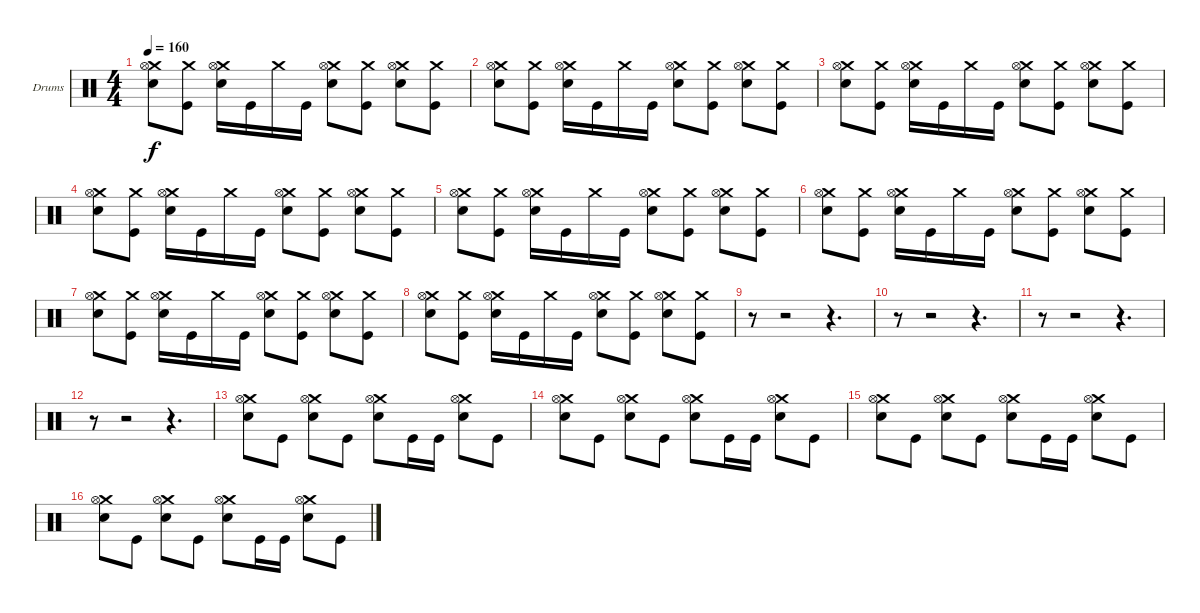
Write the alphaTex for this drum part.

\bracketExtendMode groupsimilarinstruments
\firstSystemTrackNameOrientation horizontal
\otherSystemsTrackNameOrientation horizontal
\track ("Lars Ulrich (Drum)" "Drums") {instrument percussion}
\staff {score}
\articulation defaults
\ts (4 4)
\tempo 160
\clef neutral
\ks c
("Crash medium (hit)" "Hi-Hat (open)" "Snare (hit) 2").8{dy f} ("Crash medium (hit)" "Kick (hit)").8 ("Crash medium (hit)" "Hi-Hat (open)" "Snare (hit) 2").16 "Kick (hit)".16 "Crash medium (hit)".16 "Kick (hit)".16 ("Crash medium (hit)" "Hi-Hat (open)" "Snare (hit) 2").8 ("Crash medium (hit)" "Kick (hit)").8 ("Crash medium (hit)" "Hi-Hat (open)" "Snare (hit) 2").8 ("Crash medium (hit)" "Kick (hit)").8 |
("Crash medium (hit)" "Hi-Hat (open)" "Snare (hit) 2").8 ("Crash medium (hit)" "Kick (hit)").8 ("Crash medium (hit)" "Hi-Hat (open)" "Snare (hit) 2").16 "Kick (hit)".16 "Crash medium (hit)".16 "Kick (hit)".16 ("Crash medium (hit)" "Hi-Hat (open)" "Snare (hit) 2").8 ("Crash medium (hit)" "Kick (hit)").8 ("Crash medium (hit)" "Hi-Hat (open)" "Snare (hit) 2").8 ("Crash medium (hit)" "Kick (hit)").8 |
("Crash medium (hit)" "Hi-Hat (open)" "Snare (hit) 2").8 ("Crash medium (hit)" "Kick (hit)").8 ("Crash medium (hit)" "Hi-Hat (open)" "Snare (hit) 2").16 "Kick (hit)".16 "Crash medium (hit)".16 "Kick (hit)".16 ("Crash medium (hit)" "Hi-Hat (open)" "Snare (hit) 2").8 ("Crash medium (hit)" "Kick (hit)").8 ("Crash medium (hit)" "Hi-Hat (open)" "Snare (hit) 2").8 ("Crash medium (hit)" "Kick (hit)").8 |
("Crash medium (hit)" "Hi-Hat (open)" "Snare (hit) 2").8 ("Crash medium (hit)" "Kick (hit)").8 ("Crash medium (hit)" "Hi-Hat (open)" "Snare (hit) 2").16 "Kick (hit)".16 "Crash medium (hit)".16 "Kick (hit)".16 ("Crash medium (hit)" "Hi-Hat (open)" "Snare (hit) 2").8 ("Crash medium (hit)" "Kick (hit)").8 ("Crash medium (hit)" "Hi-Hat (open)" "Snare (hit) 2").8 ("Crash medium (hit)" "Kick (hit)").8 |
("Crash medium (hit)" "Hi-Hat (open)" "Snare (hit) 2").8 ("Crash medium (hit)" "Kick (hit)").8 ("Crash medium (hit)" "Hi-Hat (open)" "Snare (hit) 2").16 "Kick (hit)".16 "Crash medium (hit)".16 "Kick (hit)".16 ("Crash medium (hit)" "Hi-Hat (open)" "Snare (hit) 2").8 ("Crash medium (hit)" "Kick (hit)").8 ("Crash medium (hit)" "Hi-Hat (open)" "Snare (hit) 2").8 ("Crash medium (hit)" "Kick (hit)").8 |
("Crash medium (hit)" "Hi-Hat (open)" "Snare (hit) 2").8 ("Crash medium (hit)" "Kick (hit)").8 ("Crash medium (hit)" "Hi-Hat (open)" "Snare (hit) 2").16 "Kick (hit)".16 "Crash medium (hit)".16 "Kick (hit)".16 ("Crash medium (hit)" "Hi-Hat (open)" "Snare (hit) 2").8 ("Crash medium (hit)" "Kick (hit)").8 ("Crash medium (hit)" "Hi-Hat (open)" "Snare (hit) 2").8 ("Crash medium (hit)" "Kick (hit)").8 |
("Crash medium (hit)" "Hi-Hat (open)" "Snare (hit) 2").8 ("Crash medium (hit)" "Kick (hit)").8 ("Crash medium (hit)" "Hi-Hat (open)" "Snare (hit) 2").16 "Kick (hit)".16 "Crash medium (hit)".16 "Kick (hit)".16 ("Crash medium (hit)" "Hi-Hat (open)" "Snare (hit) 2").8 ("Crash medium (hit)" "Kick (hit)").8 ("Crash medium (hit)" "Hi-Hat (open)" "Snare (hit) 2").8 ("Crash medium (hit)" "Kick (hit)").8 |
("Crash medium (hit)" "Hi-Hat (open)" "Snare (hit) 2").8 ("Crash medium (hit)" "Kick (hit)").8 ("Crash medium (hit)" "Hi-Hat (open)" "Snare (hit) 2").16 "Kick (hit)".16 "Crash medium (hit)".16 "Kick (hit)".16 ("Crash medium (hit)" "Hi-Hat (open)" "Snare (hit) 2").8 ("Crash medium (hit)" "Kick (hit)").8 ("Crash medium (hit)" "Hi-Hat (open)" "Snare (hit) 2").8 ("Crash medium (hit)" "Kick (hit)").8 |
r.8 r.2 r.4{d} |
r.8 r.2 r.4{d} |
r.8 r.2 r.4{d} |
r.8 r.2 r.4{d} |
("Crash medium (hit)" "Hi-Hat (open)" "Snare (hit) 2").8 "Kick (hit)".8 ("Crash medium (hit)" "Hi-Hat (open)" "Snare (hit) 2").8 "Kick (hit)".8 ("Crash medium (hit)" "Hi-Hat (open)" "Snare (hit) 2").8 "Kick (hit)".16 "Kick (hit)".16 ("Crash medium (hit)" "Hi-Hat (open)" "Snare (hit) 2").8 "Kick (hit)".8 |
("Crash medium (hit)" "Hi-Hat (open)" "Snare (hit) 2").8 "Kick (hit)".8 ("Crash medium (hit)" "Hi-Hat (open)" "Snare (hit) 2").8 "Kick (hit)".8 ("Crash medium (hit)" "Hi-Hat (open)" "Snare (hit) 2").8 "Kick (hit)".16 "Kick (hit)".16 ("Crash medium (hit)" "Hi-Hat (open)" "Snare (hit) 2").8 "Kick (hit)".8 |
("Crash medium (hit)" "Hi-Hat (open)" "Snare (hit) 2").8 "Kick (hit)".8 ("Crash medium (hit)" "Hi-Hat (open)" "Snare (hit) 2").8 "Kick (hit)".8 ("Crash medium (hit)" "Hi-Hat (open)" "Snare (hit) 2").8 "Kick (hit)".16 "Kick (hit)".16 ("Crash medium (hit)" "Hi-Hat (open)" "Snare (hit) 2").8 "Kick (hit)".8 |
("Crash medium (hit)" "Hi-Hat (open)" "Snare (hit) 2").8 "Kick (hit)".8 ("Crash medium (hit)" "Hi-Hat (open)" "Snare (hit) 2").8 "Kick (hit)".8 ("Crash medium (hit)" "Hi-Hat (open)" "Snare (hit) 2").8 "Kick (hit)".16 "Kick (hit)".16 ("Crash medium (hit)" "Hi-Hat (open)" "Snare (hit) 2").8 "Kick (hit)".8
